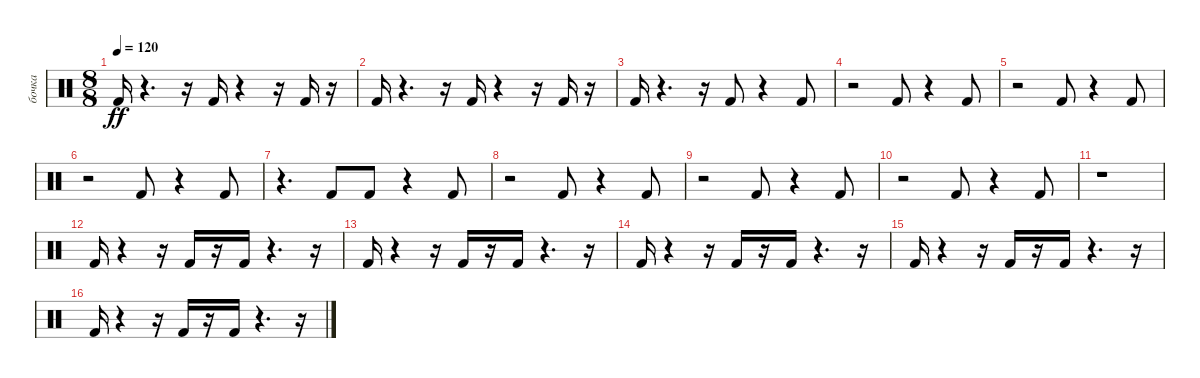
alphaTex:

\track ("бочка" "бочка") {instrument percussion}
\staff {score}
\articulation defaults
\ts (8 8)
\tempo 120
\clef neutral
\ks c "Kick (hit) 2".16{dy ff}
r.4{d} r.16 "Kick (hit) 2".16 r.4 r.16 "Kick (hit) 2".16 r.16 |
"Kick (hit) 2".16 r.4{d} r.16 "Kick (hit) 2".16 r.4 r.16 "Kick (hit) 2".16 r.16 |
"Kick (hit) 2".16 r.4{d} r.16 "Kick (hit) 2".8 r.4 "Kick (hit) 2".8 |
r.2 "Kick (hit) 2".8 r.4 "Kick (hit) 2".8 |
r.2 "Kick (hit) 2".8 r.4 "Kick (hit) 2".8 |
r.2 "Kick (hit) 2".8 r.4 "Kick (hit) 2".8 |
r.4{d} "Kick (hit) 2".8 "Kick (hit) 2".8 r.4 "Kick (hit) 2".8 |
r.2 "Kick (hit) 2".8 r.4 "Kick (hit) 2".8 |
r.2 "Kick (hit) 2".8 r.4 "Kick (hit) 2".8 |
r.2 "Kick (hit) 2".8 r.4 "Kick (hit) 2".8 |
r.1 |
"Kick (hit) 2".16 r.4 r.16 "Kick (hit) 2".16 r.16 "Kick (hit) 2".16 r.4{d} r.16 |
"Kick (hit) 2".16 r.4 r.16 "Kick (hit) 2".16 r.16 "Kick (hit) 2".16 r.4{d} r.16 |
"Kick (hit) 2".16 r.4 r.16 "Kick (hit) 2".16 r.16 "Kick (hit) 2".16 r.4{d} r.16 |
"Kick (hit) 2".16 r.4 r.16 "Kick (hit) 2".16 r.16 "Kick (hit) 2".16 r.4{d} r.16 |
"Kick (hit) 2".16 r.4 r.16 "Kick (hit) 2".16 r.16 "Kick (hit) 2".16 r.4{d} r.16
